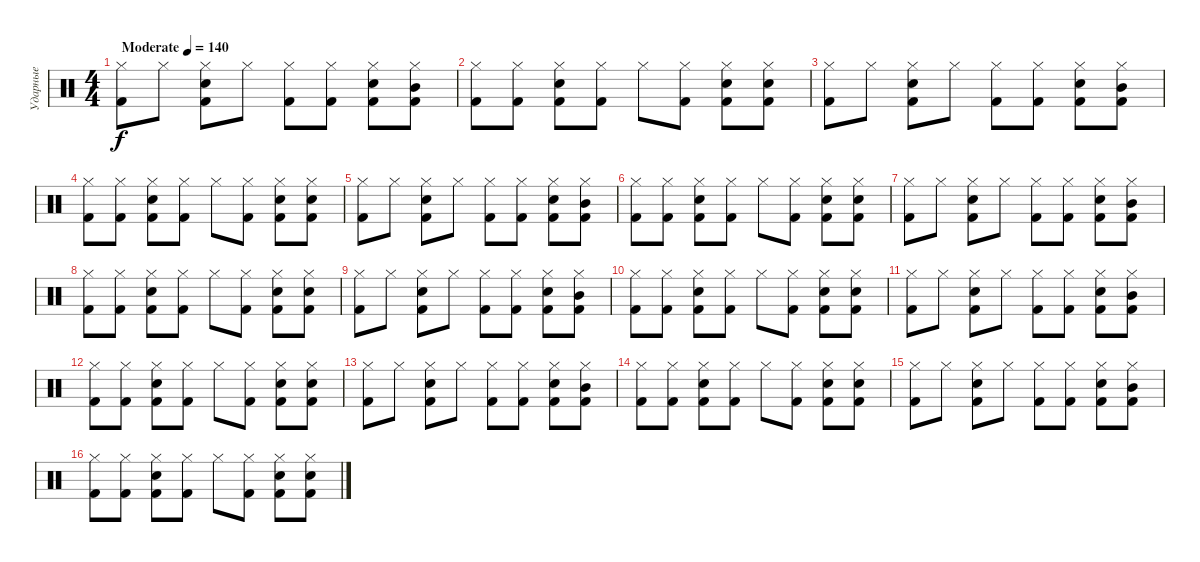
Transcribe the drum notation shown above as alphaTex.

\track ("Ударные" "Ударные") {instrument percussion}
\staff {score}
\articulation defaults
\ts (4 4)
\tempo (140 "Moderate")
\clef neutral
\ks c
("Hi-Hat (closed)" "Kick (hit) 2").8{dy f} "Hi-Hat (closed)".8 ("Hi-Hat (closed)" "Kick (hit) 2" "Snare (hit) 2").8 "Hi-Hat (closed)".8 ("Hi-Hat (closed)" "Kick (hit) 2").8 ("Hi-Hat (closed)" "Kick (hit) 2").8 ("Hi-Hat (closed)" "Snare (hit) 2" "Kick (hit) 2").8 ("Mid Tom (hit)" "Kick (hit) 2" "Hi-Hat (closed)").8 |
("Hi-Hat (closed)" "Kick (hit) 2").8 ("Hi-Hat (closed)" "Kick (hit) 2").8 ("Hi-Hat (closed)" "Kick (hit) 2" "Snare (hit) 2").8 ("Hi-Hat (closed)" "Kick (hit) 2").8 "Hi-Hat (closed)".8 ("Hi-Hat (closed)" "Kick (hit) 2").8 ("Hi-Hat (closed)" "Snare (hit) 2" "Kick (hit) 2").8 ("Snare (hit) 2" "Kick (hit) 2" "Hi-Hat (closed)").8 |
("Hi-Hat (closed)" "Kick (hit) 2").8 "Hi-Hat (closed)".8 ("Hi-Hat (closed)" "Kick (hit) 2" "Snare (hit) 2").8 "Hi-Hat (closed)".8 ("Hi-Hat (closed)" "Kick (hit) 2").8 ("Hi-Hat (closed)" "Kick (hit) 2").8 ("Hi-Hat (closed)" "Snare (hit) 2" "Kick (hit) 2").8 ("Mid Tom (hit)" "Kick (hit) 2" "Hi-Hat (closed)").8 |
("Hi-Hat (closed)" "Kick (hit) 2").8 ("Hi-Hat (closed)" "Kick (hit) 2").8 ("Hi-Hat (closed)" "Kick (hit) 2" "Snare (hit) 2").8 ("Hi-Hat (closed)" "Kick (hit) 2").8 "Hi-Hat (closed)".8 ("Hi-Hat (closed)" "Kick (hit) 2").8 ("Hi-Hat (closed)" "Snare (hit) 2" "Kick (hit) 2").8 ("Snare (hit) 2" "Kick (hit) 2" "Hi-Hat (closed)").8 |
("Hi-Hat (closed)" "Kick (hit) 2").8 "Hi-Hat (closed)".8 ("Hi-Hat (closed)" "Kick (hit) 2" "Snare (hit) 2").8 "Hi-Hat (closed)".8 ("Hi-Hat (closed)" "Kick (hit) 2").8 ("Hi-Hat (closed)" "Kick (hit) 2").8 ("Hi-Hat (closed)" "Snare (hit) 2" "Kick (hit) 2").8 ("Mid Tom (hit)" "Kick (hit) 2" "Hi-Hat (closed)").8 |
("Hi-Hat (closed)" "Kick (hit) 2").8 ("Hi-Hat (closed)" "Kick (hit) 2").8 ("Hi-Hat (closed)" "Kick (hit) 2" "Snare (hit) 2").8 ("Hi-Hat (closed)" "Kick (hit) 2").8 "Hi-Hat (closed)".8 ("Hi-Hat (closed)" "Kick (hit) 2").8 ("Hi-Hat (closed)" "Snare (hit) 2" "Kick (hit) 2").8 ("Snare (hit) 2" "Kick (hit) 2" "Hi-Hat (closed)").8 |
("Hi-Hat (closed)" "Kick (hit) 2").8 "Hi-Hat (closed)".8 ("Hi-Hat (closed)" "Kick (hit) 2" "Snare (hit) 2").8 "Hi-Hat (closed)".8 ("Hi-Hat (closed)" "Kick (hit) 2").8 ("Hi-Hat (closed)" "Kick (hit) 2").8 ("Hi-Hat (closed)" "Snare (hit) 2" "Kick (hit) 2").8 ("Mid Tom (hit)" "Kick (hit) 2" "Hi-Hat (closed)").8 |
("Hi-Hat (closed)" "Kick (hit) 2").8 ("Hi-Hat (closed)" "Kick (hit) 2").8 ("Hi-Hat (closed)" "Kick (hit) 2" "Snare (hit) 2").8 ("Hi-Hat (closed)" "Kick (hit) 2").8 "Hi-Hat (closed)".8 ("Hi-Hat (closed)" "Kick (hit) 2").8 ("Hi-Hat (closed)" "Snare (hit) 2" "Kick (hit) 2").8 ("Snare (hit) 2" "Kick (hit) 2" "Hi-Hat (closed)").8 |
("Hi-Hat (closed)" "Kick (hit) 2").8 "Hi-Hat (closed)".8 ("Hi-Hat (closed)" "Kick (hit) 2" "Snare (hit) 2").8 "Hi-Hat (closed)".8 ("Hi-Hat (closed)" "Kick (hit) 2").8 ("Hi-Hat (closed)" "Kick (hit) 2").8 ("Hi-Hat (closed)" "Snare (hit) 2" "Kick (hit) 2").8 ("Mid Tom (hit)" "Kick (hit) 2" "Hi-Hat (closed)").8 |
("Hi-Hat (closed)" "Kick (hit) 2").8 ("Hi-Hat (closed)" "Kick (hit) 2").8 ("Hi-Hat (closed)" "Kick (hit) 2" "Snare (hit) 2").8 ("Hi-Hat (closed)" "Kick (hit) 2").8 "Hi-Hat (closed)".8 ("Hi-Hat (closed)" "Kick (hit) 2").8 ("Hi-Hat (closed)" "Snare (hit) 2" "Kick (hit) 2").8 ("Snare (hit) 2" "Kick (hit) 2" "Hi-Hat (closed)").8 |
("Hi-Hat (closed)" "Kick (hit) 2").8 "Hi-Hat (closed)".8 ("Hi-Hat (closed)" "Kick (hit) 2" "Snare (hit) 2").8 "Hi-Hat (closed)".8 ("Hi-Hat (closed)" "Kick (hit) 2").8 ("Hi-Hat (closed)" "Kick (hit) 2").8 ("Hi-Hat (closed)" "Snare (hit) 2" "Kick (hit) 2").8 ("Mid Tom (hit)" "Kick (hit) 2" "Hi-Hat (closed)").8 |
("Hi-Hat (closed)" "Kick (hit) 2").8 ("Hi-Hat (closed)" "Kick (hit) 2").8 ("Hi-Hat (closed)" "Kick (hit) 2" "Snare (hit) 2").8 ("Hi-Hat (closed)" "Kick (hit) 2").8 "Hi-Hat (closed)".8 ("Hi-Hat (closed)" "Kick (hit) 2").8 ("Hi-Hat (closed)" "Snare (hit) 2" "Kick (hit) 2").8 ("Snare (hit) 2" "Kick (hit) 2" "Hi-Hat (closed)").8 |
("Hi-Hat (closed)" "Kick (hit) 2").8 "Hi-Hat (closed)".8 ("Hi-Hat (closed)" "Kick (hit) 2" "Snare (hit) 2").8 "Hi-Hat (closed)".8 ("Hi-Hat (closed)" "Kick (hit) 2").8 ("Hi-Hat (closed)" "Kick (hit) 2").8 ("Hi-Hat (closed)" "Snare (hit) 2" "Kick (hit) 2").8 ("Mid Tom (hit)" "Kick (hit) 2" "Hi-Hat (closed)").8 |
("Hi-Hat (closed)" "Kick (hit) 2").8 ("Hi-Hat (closed)" "Kick (hit) 2").8 ("Hi-Hat (closed)" "Kick (hit) 2" "Snare (hit) 2").8 ("Hi-Hat (closed)" "Kick (hit) 2").8 "Hi-Hat (closed)".8 ("Hi-Hat (closed)" "Kick (hit) 2").8 ("Hi-Hat (closed)" "Snare (hit) 2" "Kick (hit) 2").8 ("Snare (hit) 2" "Kick (hit) 2" "Hi-Hat (closed)").8 |
("Hi-Hat (closed)" "Kick (hit) 2").8 "Hi-Hat (closed)".8 ("Hi-Hat (closed)" "Kick (hit) 2" "Snare (hit) 2").8 "Hi-Hat (closed)".8 ("Hi-Hat (closed)" "Kick (hit) 2").8 ("Hi-Hat (closed)" "Kick (hit) 2").8 ("Hi-Hat (closed)" "Snare (hit) 2" "Kick (hit) 2").8 ("Mid Tom (hit)" "Kick (hit) 2" "Hi-Hat (closed)").8 |
("Hi-Hat (closed)" "Kick (hit) 2").8 ("Hi-Hat (closed)" "Kick (hit) 2").8 ("Hi-Hat (closed)" "Kick (hit) 2" "Snare (hit) 2").8 ("Hi-Hat (closed)" "Kick (hit) 2").8 "Hi-Hat (closed)".8 ("Hi-Hat (closed)" "Kick (hit) 2").8 ("Hi-Hat (closed)" "Snare (hit) 2" "Kick (hit) 2").8 ("Snare (hit) 2" "Kick (hit) 2" "Hi-Hat (closed)").8
